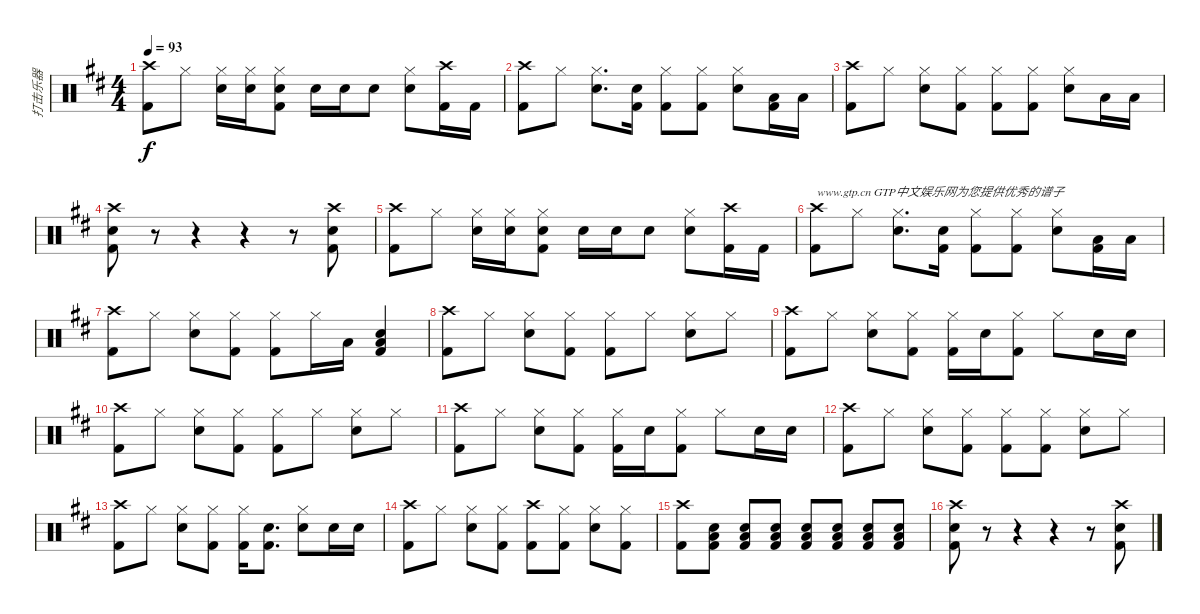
\track ("打击乐器" "打击乐器") {instrument percussion}
\staff {score}
\articulation defaults
\ts (4 4)
\tempo 93
\clef neutral
\ks d
("Crash high (hit)" "Kick (hit) 2").8{dy f} "Hi-Hat (closed)".8 ("Hi-Hat (closed)" "Snare (hit) 2").16 ("Hi-Hat (closed)" "Snare (hit) 2").16 ("Hi-Hat (closed)" "Snare (hit) 2" "Kick (hit) 2").8 "Snare (hit) 2".16 "Snare (hit) 2".16 "Snare (hit) 2".8 ("Hi-Hat (closed)" "Snare (hit) 2").8 ("Crash high (hit)" "Kick (hit) 2").16 "Kick (hit) 2".16 |
("Crash high (hit)" "Kick (hit) 2").8 "Hi-Hat (closed)".8 ("Hi-Hat (closed)" "Snare (hit) 2").8{d} ("Snare (hit) 2" "Kick (hit) 2").16 ("Hi-Hat (closed)" "Kick (hit) 2").8 ("Hi-Hat (closed)" "Kick (hit) 2").8 ("Hi-Hat (closed)" "Snare (hit) 2").8 ("Low Tom (hit)" "Kick (hit) 2").16 "Low Tom (hit)".16 |
("Crash high (hit)" "Kick (hit) 2").8 "Hi-Hat (closed)".8 ("Hi-Hat (closed)" "Snare (hit) 2").8 ("Hi-Hat (closed)" "Kick (hit) 2").8 ("Hi-Hat (closed)" "Kick (hit) 2").8 ("Hi-Hat (closed)" "Kick (hit) 2").8 ("Hi-Hat (closed)" "Snare (hit) 2").8 "Low Tom (hit)".16 "Low Tom (hit)".16 |
("Crash high (hit)" "Snare (hit) 2" "Kick (hit) 2").8 r.8 r.4 r.4 r.8 ("Crash high (hit)" "Snare (hit) 2" "Kick (hit) 2").8 |
("Crash high (hit)" "Kick (hit) 2").8 "Hi-Hat (closed)".8 ("Hi-Hat (closed)" "Snare (hit) 2").16 ("Hi-Hat (closed)" "Snare (hit) 2").16 ("Hi-Hat (closed)" "Snare (hit) 2" "Kick (hit) 2").8 "Snare (hit) 2".16 "Snare (hit) 2".16 "Snare (hit) 2".8 ("Hi-Hat (closed)" "Snare (hit) 2").8 ("Crash high (hit)" "Kick (hit) 2").16 "Kick (hit) 2".16 |
("Crash high (hit)" "Kick (hit) 2").8{txt "www.gtp.cn GTP中文娱乐网为您提供优秀的谱子"} "Hi-Hat (closed)".8 ("Hi-Hat (closed)" "Snare (hit) 2").8{d} ("Snare (hit) 2" "Kick (hit) 2").16 ("Hi-Hat (closed)" "Kick (hit) 2").8 ("Hi-Hat (closed)" "Kick (hit) 2").8 ("Hi-Hat (closed)" "Snare (hit) 2").8 ("Low Tom (hit)" "Kick (hit) 2").16 "Low Tom (hit)".16 |
("Crash high (hit)" "Kick (hit) 2").8 "Hi-Hat (closed)".8 ("Hi-Hat (closed)" "Snare (hit) 2").8 ("Hi-Hat (closed)" "Kick (hit) 2").8 ("Hi-Hat (closed)" "Kick (hit) 2").8 "Hi-Hat (closed)".16 "Low Tom (hit)".16 ("Low Tom (hit)" "Snare (hit) 2" "Kick (hit) 2").4 |
("Crash high (hit)" "Kick (hit) 2").8 "Hi-Hat (closed)".8 ("Hi-Hat (closed)" "Snare (hit) 2").8 ("Hi-Hat (closed)" "Kick (hit) 2").8 ("Hi-Hat (closed)" "Kick (hit) 2").8 "Hi-Hat (closed)".8 ("Hi-Hat (closed)" "Snare (hit) 2").8 "Hi-Hat (closed)".8 |
("Crash high (hit)" "Kick (hit) 2").8 "Hi-Hat (closed)".8 ("Hi-Hat (closed)" "Snare (hit) 2").8 ("Hi-Hat (closed)" "Kick (hit) 2").8 ("Hi-Hat (closed)" "Kick (hit) 2").16 "Snare (hit) 2".16 ("Hi-Hat (closed)" "Kick (hit) 2").8 "Hi-Hat (closed)".8 "Snare (hit) 2".16 "Snare (hit) 2".16 |
("Crash high (hit)" "Kick (hit) 2").8 "Hi-Hat (closed)".8 ("Hi-Hat (closed)" "Snare (hit) 2").8 ("Hi-Hat (closed)" "Kick (hit) 2").8 ("Hi-Hat (closed)" "Kick (hit) 2").8 "Hi-Hat (closed)".8 ("Hi-Hat (closed)" "Snare (hit) 2").8 "Hi-Hat (closed)".8 |
("Crash high (hit)" "Kick (hit) 2").8 "Hi-Hat (closed)".8 ("Hi-Hat (closed)" "Snare (hit) 2").8 ("Hi-Hat (closed)" "Kick (hit) 2").8 ("Hi-Hat (closed)" "Kick (hit) 2").16 "Snare (hit) 2".16 ("Hi-Hat (closed)" "Kick (hit) 2").8 "Hi-Hat (closed)".8 "Snare (hit) 2".16 "Snare (hit) 2".16 |
("Crash high (hit)" "Kick (hit) 2").8 "Hi-Hat (closed)".8 ("Hi-Hat (closed)" "Snare (hit) 2").8 ("Hi-Hat (closed)" "Kick (hit) 2").8 ("Hi-Hat (closed)" "Kick (hit) 2").8 ("Hi-Hat (closed)" "Kick (hit) 2").8 ("Hi-Hat (closed)" "Snare (hit) 2").8 "Hi-Hat (closed)".8 |
("Crash high (hit)" "Kick (hit) 2").8 "Hi-Hat (closed)".8 ("Hi-Hat (closed)" "Snare (hit) 2").8 ("Hi-Hat (closed)" "Kick (hit) 2").8 ("Hi-Hat (closed)" "Kick (hit) 2").16 ("Snare (hit) 2" "Kick (hit) 2").8{d} ("Hi-Hat (closed)" "Snare (hit) 2").8 "Snare (hit) 2".16 "Snare (hit) 2".16 |
("Crash high (hit)" "Kick (hit) 2").8 "Hi-Hat (closed)".8 ("Hi-Hat (closed)" "Snare (hit) 2").8 ("Hi-Hat (closed)" "Kick (hit) 2").8 ("Crash high (hit)" "Kick (hit) 2").8 ("Hi-Hat (closed)" "Kick (hit) 2").8 ("Hi-Hat (closed)" "Snare (hit) 2").8 ("Hi-Hat (closed)" "Kick (hit) 2").8 |
("Crash high (hit)" "Kick (hit) 2").8 ("Low Tom (hit)" "Snare (hit) 2" "Kick (hit) 2").8 ("Low Tom (hit)" "Snare (hit) 2" "Kick (hit) 2").8 ("Low Tom (hit)" "Snare (hit) 2" "Kick (hit) 2").8 ("Low Tom (hit)" "Snare (hit) 2" "Kick (hit) 2").8 ("Low Tom (hit)" "Snare (hit) 2" "Kick (hit) 2").8 ("Low Tom (hit)" "Snare (hit) 2" "Kick (hit) 2").8 ("Low Tom (hit)" "Snare (hit) 2" "Kick (hit) 2").8 |
("Crash high (hit)" "Snare (hit) 2" "Kick (hit) 2").8 r.8 r.4 r.4 r.8 ("Crash high (hit)" "Snare (hit) 2" "Kick (hit) 2").8
